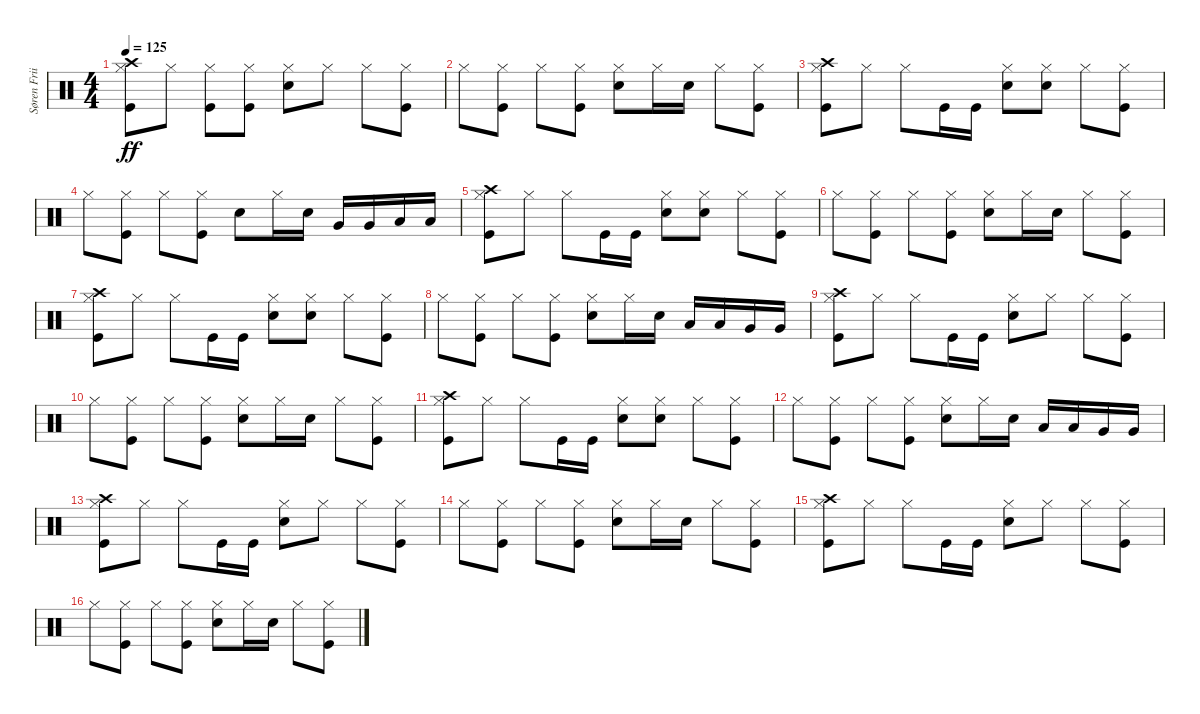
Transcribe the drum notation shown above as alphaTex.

\track ("Søren Friis - Drums" "Søren Frii") {instrument percussion}
\staff {score}
\articulation defaults
\ts (4 4)
\tempo 125
\clef neutral
\ks c
("Kick (hit)" "Hi-Hat (closed)" "Crash high (hit)").8{dy ff} "Hi-Hat (closed)".8 ("Kick (hit)" "Hi-Hat (closed)").8 ("Kick (hit)" "Hi-Hat (closed)").8 ("Snare (hit) 2" "Hi-Hat (closed)").8 "Hi-Hat (closed)".8 "Hi-Hat (closed)".8 ("Kick (hit)" "Hi-Hat (closed)").8 |
"Hi-Hat (closed)".8 ("Kick (hit)" "Hi-Hat (closed)").8 "Hi-Hat (closed)".8 ("Kick (hit)" "Hi-Hat (closed)").8 ("Snare (hit) 2" "Hi-Hat (closed)").8 "Hi-Hat (closed)".16 "Snare (hit) 2".16 "Hi-Hat (closed)".8 ("Kick (hit)" "Hi-Hat (closed)").8 |
("Kick (hit)" "Hi-Hat (closed)" "Crash high (hit)").8 "Hi-Hat (closed)".8 "Hi-Hat (closed)".8 "Kick (hit)".16 "Kick (hit)".16 ("Snare (hit) 2" "Hi-Hat (closed)").8 ("Snare (hit) 2" "Hi-Hat (closed)").8 "Hi-Hat (closed)".8 ("Kick (hit)" "Hi-Hat (closed)").8 |
"Hi-Hat (closed)".8 ("Kick (hit)" "Hi-Hat (closed)").8 "Hi-Hat (closed)".8 ("Kick (hit)" "Hi-Hat (closed)").8 "Snare (hit) 2".8 "Hi-Hat (closed)".16 "Snare (hit) 2".16 "Very Low Tom (hit)".16 "Very Low Tom (hit)".16 "Low Floor Tom (hit)".16 "Low Floor Tom (hit)".16 |
("Kick (hit)" "Hi-Hat (closed)" "Crash high (hit)").8 "Hi-Hat (closed)".8 "Hi-Hat (closed)".8 "Kick (hit)".16 "Kick (hit)".16 ("Snare (hit) 2" "Hi-Hat (closed)").8 ("Snare (hit) 2" "Hi-Hat (closed)").8 "Hi-Hat (closed)".8 ("Kick (hit)" "Hi-Hat (closed)").8 |
"Hi-Hat (closed)".8 ("Kick (hit)" "Hi-Hat (closed)").8 "Hi-Hat (closed)".8 ("Kick (hit)" "Hi-Hat (closed)").8 ("Snare (hit) 2" "Hi-Hat (closed)").8 "Hi-Hat (closed)".16 "Snare (hit) 2".16 "Hi-Hat (closed)".8 ("Kick (hit)" "Hi-Hat (closed)").8 |
("Kick (hit)" "Hi-Hat (closed)" "Crash high (hit)").8 "Hi-Hat (closed)".8 "Hi-Hat (closed)".8 "Kick (hit)".16 "Kick (hit)".16 ("Snare (hit) 2" "Hi-Hat (closed)").8 ("Snare (hit) 2" "Hi-Hat (closed)").8 "Hi-Hat (closed)".8 ("Kick (hit)" "Hi-Hat (closed)").8 |
"Hi-Hat (closed)".8 ("Kick (hit)" "Hi-Hat (closed)").8 "Hi-Hat (closed)".8 ("Kick (hit)" "Hi-Hat (closed)").8 ("Snare (hit) 2" "Hi-Hat (closed)").8 "Hi-Hat (closed)".16 "Snare (hit) 2".16 "Low Tom (hit)".16 "Low Tom (hit)".16 "Very Low Tom (hit)".16 "Very Low Tom (hit)".16 |
("Kick (hit)" "Hi-Hat (closed)" "Crash high (hit)").8 "Hi-Hat (closed)".8 "Hi-Hat (closed)".8 "Kick (hit)".16 "Kick (hit)".16 ("Snare (hit) 2" "Hi-Hat (closed)").8 "Hi-Hat (closed)".8 "Hi-Hat (closed)".8 ("Kick (hit)" "Hi-Hat (closed)").8 |
"Hi-Hat (closed)".8 ("Kick (hit)" "Hi-Hat (closed)").8 "Hi-Hat (closed)".8 ("Kick (hit)" "Hi-Hat (closed)").8 ("Snare (hit) 2" "Hi-Hat (closed)").8 "Hi-Hat (closed)".16 "Snare (hit) 2".16 "Hi-Hat (closed)".8 ("Kick (hit)" "Hi-Hat (closed)").8 |
("Kick (hit)" "Hi-Hat (closed)" "Crash high (hit)").8 "Hi-Hat (closed)".8 "Hi-Hat (closed)".8 "Kick (hit)".16 "Kick (hit)".16 ("Snare (hit) 2" "Hi-Hat (closed)").8 ("Snare (hit) 2" "Hi-Hat (closed)").8 "Hi-Hat (closed)".8 ("Kick (hit)" "Hi-Hat (closed)").8 |
"Hi-Hat (closed)".8 ("Kick (hit)" "Hi-Hat (closed)").8 "Hi-Hat (closed)".8 ("Kick (hit)" "Hi-Hat (closed)").8 ("Snare (hit) 2" "Hi-Hat (closed)").8 "Hi-Hat (closed)".16 "Snare (hit) 2".16 "Low Tom (hit)".16 "Low Tom (hit)".16 "Very Low Tom (hit)".16 "Very Low Tom (hit)".16 |
("Kick (hit)" "Hi-Hat (closed)" "Crash high (hit)").8 "Hi-Hat (closed)".8 "Hi-Hat (closed)".8 "Kick (hit)".16 "Kick (hit)".16 ("Snare (hit) 2" "Hi-Hat (closed)").8 "Hi-Hat (closed)".8 "Hi-Hat (closed)".8 ("Kick (hit)" "Hi-Hat (closed)").8 |
"Hi-Hat (closed)".8 ("Kick (hit)" "Hi-Hat (closed)").8 "Hi-Hat (closed)".8 ("Kick (hit)" "Hi-Hat (closed)").8 ("Snare (hit) 2" "Hi-Hat (closed)").8 "Hi-Hat (closed)".16 "Snare (hit) 2".16 "Hi-Hat (closed)".8 ("Kick (hit)" "Hi-Hat (closed)").8 |
("Kick (hit)" "Hi-Hat (closed)" "Crash high (hit)").8 "Hi-Hat (closed)".8 "Hi-Hat (closed)".8 "Kick (hit)".16 "Kick (hit)".16 ("Snare (hit) 2" "Hi-Hat (closed)").8 "Hi-Hat (closed)".8 "Hi-Hat (closed)".8 ("Kick (hit)" "Hi-Hat (closed)").8 |
"Hi-Hat (closed)".8 ("Kick (hit)" "Hi-Hat (closed)").8 "Hi-Hat (closed)".8 ("Kick (hit)" "Hi-Hat (closed)").8 ("Snare (hit) 2" "Hi-Hat (closed)").8 "Hi-Hat (closed)".16 "Snare (hit) 2".16 "Hi-Hat (closed)".8 ("Kick (hit)" "Hi-Hat (closed)").8
